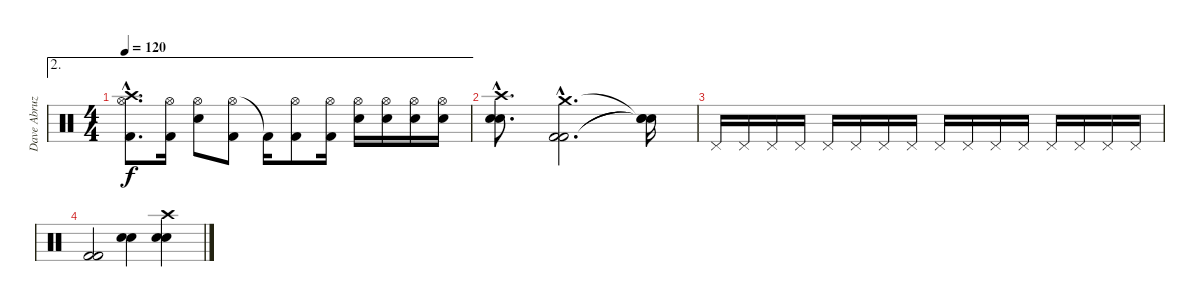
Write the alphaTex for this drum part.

\track ("Dave Abruzzesse" "Dave Abruz") {instrument percussion}
\staff {score}
\articulation defaults
\ae 2
\ts (4 4)
\tempo 120
\clef neutral
\ks c
("Crash high (hit)"{hac} "Hi-Hat (open)"{hac} "Kick (hit) 2"{hac}).8{d dy f} ("Hi-Hat (open)" "Kick (hit) 2").16 ("Hi-Hat (open)" "Snare (hit) 2").8 ("Hi-Hat (open)" "Kick (hit) 2").8 "Kick (hit) 2"{t}.16 ("Hi-Hat (open)" "Kick (hit) 2").8 ("Hi-Hat (open)" "Kick (hit) 2").16 ("Hi-Hat (open)" "Snare (hit) 2").16 ("Hi-Hat (open)" "Snare (hit) 2").16 ("Hi-Hat (open)" "Snare (hit) 2").16 ("Hi-Hat (open)" "Snare (hit) 2").16 |
("Crash high (hit)"{hac} "Snare (hit) 2"{hac} "Snare (hit) 2"{hac}).8{d} ("Crash medium (hit)"{hac} "Kick (hit) 2"{hac} "Kick (hit) 2"{hac}).2{d} ("Snare (hit)"{t} "Snare (hit)"{t} "Snare (hit)"{t}).16 |
"Pedal Hi-Hat (hit)".16 "Pedal Hi-Hat (hit)".16 "Pedal Hi-Hat (hit)".16 "Pedal Hi-Hat (hit)".16 "Pedal Hi-Hat (hit)".16 "Pedal Hi-Hat (hit)".16 "Pedal Hi-Hat (hit)".16 "Pedal Hi-Hat (hit)".16 "Pedal Hi-Hat (hit)".16 "Pedal Hi-Hat (hit)".16 "Pedal Hi-Hat (hit)".16 "Pedal Hi-Hat (hit)".16 "Pedal Hi-Hat (hit)".16 "Pedal Hi-Hat (hit)".16 "Pedal Hi-Hat (hit)".16 "Pedal Hi-Hat (hit)".16 |
("Kick (hit) 2" "Kick (hit) 2").2 ("Snare (hit) 2" "Snare (hit) 2").4 ("Crash high (hit)" "Snare (hit) 2" "Snare (hit) 2").4
